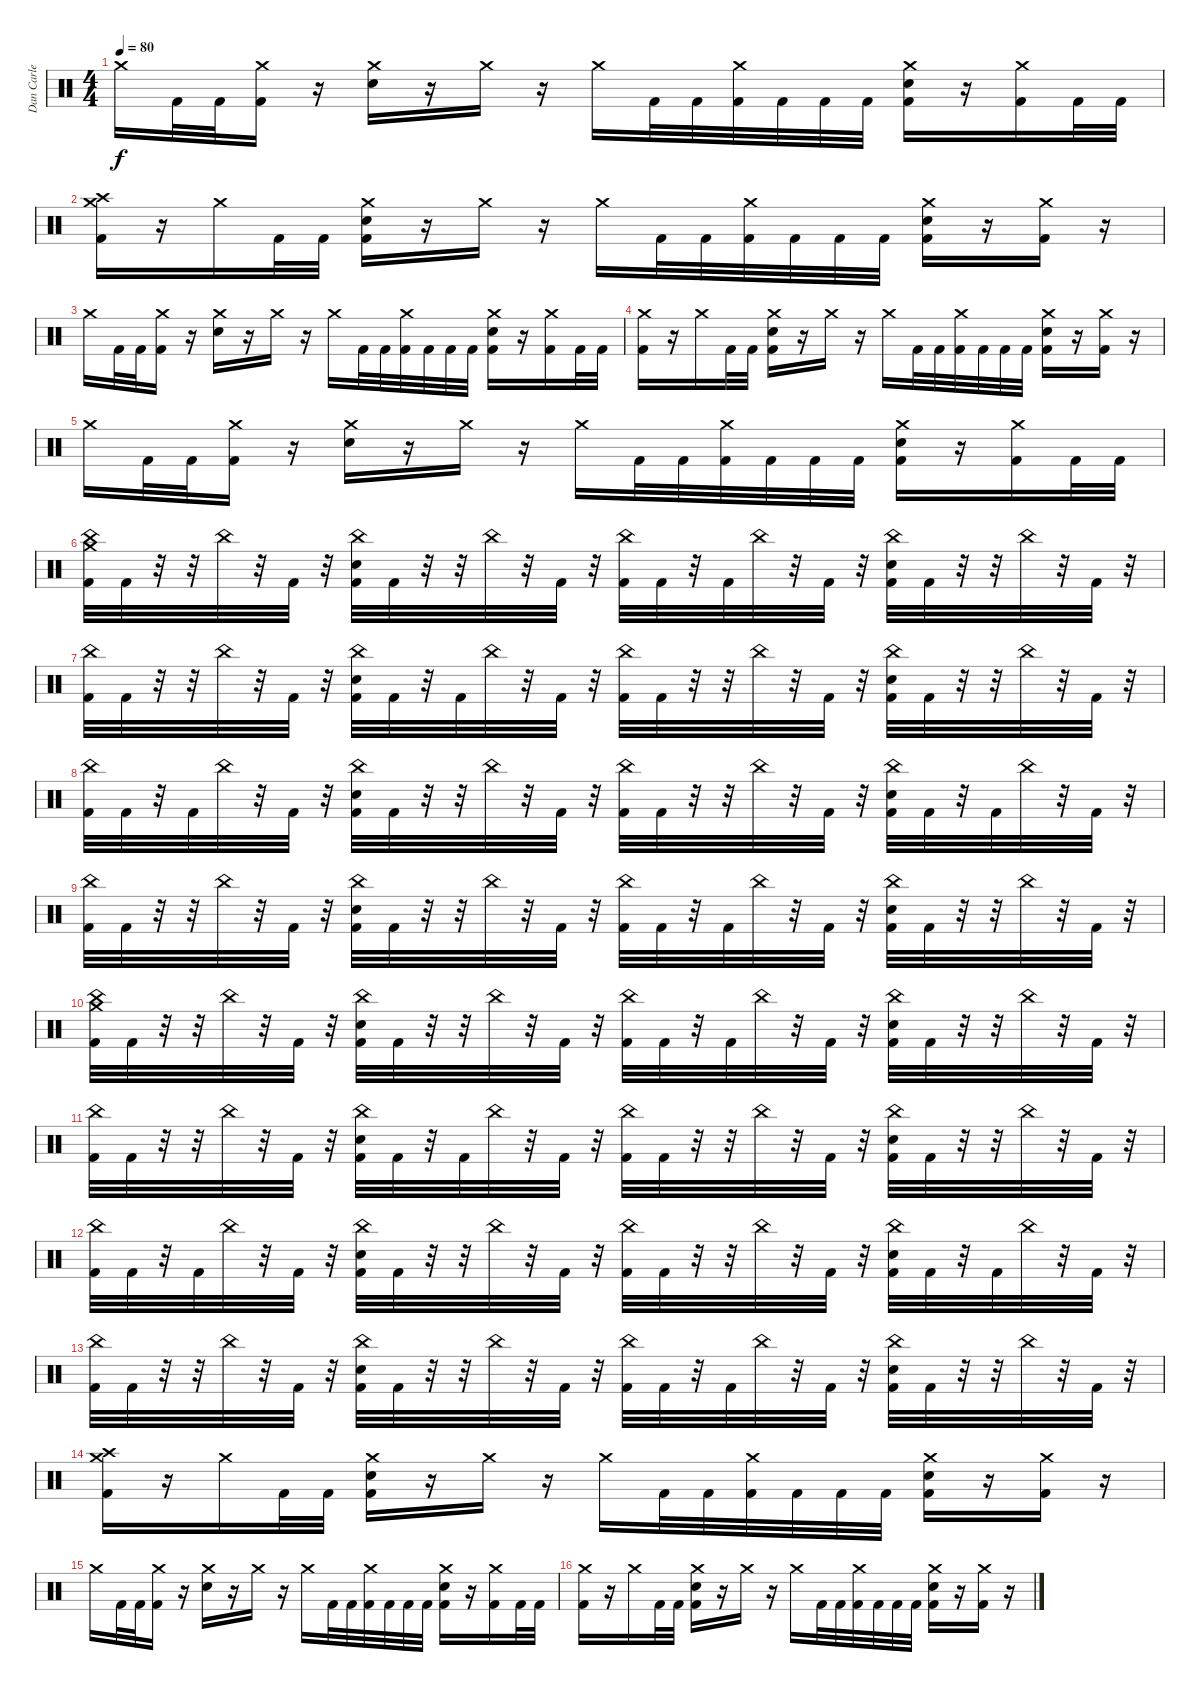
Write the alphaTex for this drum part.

\track ("Dan Carle" "Dan Carle") {instrument percussion}
\staff {score}
\articulation defaults
\ts (4 4)
\tempo 80
\clef neutral
\ks c "Crash medium (hit)".16{dy f} "Kick (hit) 2".32 "Kick (hit) 2".32
("Crash medium (hit)" "Kick (hit) 2").16 r.16 ("Crash medium (hit)" "Snare (hit) 2").16 r.16 "Crash medium (hit)".16 r.16 "Crash medium (hit)".16 "Kick (hit) 2".32 "Kick (hit) 2".32 ("Crash medium (hit)" "Kick (hit) 2").32 "Kick (hit) 2".32 "Kick (hit) 2".32 "Kick (hit) 2".32 ("Crash medium (hit)" "Snare (hit) 2" "Kick (hit) 2").16 r.16 ("Crash medium (hit)" "Kick (hit) 2").16 "Kick (hit) 2".32 "Kick (hit) 2".32 |
("Crash medium (hit)" "Crash high (hit)" "Kick (hit) 2").16 r.16 "Crash medium (hit)".16 "Kick (hit) 2".32 "Kick (hit) 2".32 ("Crash medium (hit)" "Snare (hit) 2" "Kick (hit) 2").16 r.16 "Crash medium (hit)".16 r.16 "Crash medium (hit)".16 "Kick (hit) 2".32 "Kick (hit) 2".32 ("Crash medium (hit)" "Kick (hit) 2").32 "Kick (hit) 2".32 "Kick (hit) 2".32 "Kick (hit) 2".32 ("Crash medium (hit)" "Snare (hit) 2" "Kick (hit) 2").16 r.16 ("Crash medium (hit)" "Kick (hit) 2").16 r.16 |
"Crash medium (hit)".16 "Kick (hit) 2".32 "Kick (hit) 2".32 ("Crash medium (hit)" "Kick (hit) 2").16 r.16 ("Crash medium (hit)" "Snare (hit) 2").16 r.16 "Crash medium (hit)".16 r.16 "Crash medium (hit)".16 "Kick (hit) 2".32 "Kick (hit) 2".32 ("Crash medium (hit)" "Kick (hit) 2").32 "Kick (hit) 2".32 "Kick (hit) 2".32 "Kick (hit) 2".32 ("Crash medium (hit)" "Snare (hit) 2" "Kick (hit) 2").16 r.16 ("Crash medium (hit)" "Kick (hit) 2").16 "Kick (hit) 2".32 "Kick (hit) 2".32 |
("Crash medium (hit)" "Kick (hit) 2").16 r.16 "Crash medium (hit)".16 "Kick (hit) 2".32 "Kick (hit) 2".32 ("Crash medium (hit)" "Snare (hit) 2" "Kick (hit) 2").16 r.16 "Crash medium (hit)".16 r.16 "Crash medium (hit)".16 "Kick (hit) 2".32 "Kick (hit) 2".32 ("Crash medium (hit)" "Kick (hit) 2").32 "Kick (hit) 2".32 "Kick (hit) 2".32 "Kick (hit) 2".32 ("Crash medium (hit)" "Snare (hit) 2" "Kick (hit) 2").16 r.16 ("Crash medium (hit)" "Kick (hit) 2").16 r.16 |
"Crash medium (hit)".16 "Kick (hit) 2".32 "Kick (hit) 2".32 ("Crash medium (hit)" "Kick (hit) 2").16 r.16 ("Crash medium (hit)" "Snare (hit) 2").16 r.16 "Crash medium (hit)".16 r.16 "Crash medium (hit)".16 "Kick (hit) 2".32 "Kick (hit) 2".32 ("Crash medium (hit)" "Kick (hit) 2").32 "Kick (hit) 2".32 "Kick (hit) 2".32 "Kick (hit) 2".32 ("Crash medium (hit)" "Snare (hit) 2" "Kick (hit) 2").16 r.16 ("Crash medium (hit)" "Kick (hit) 2").16 "Kick (hit) 2".32 "Kick (hit) 2".32 |
("China (hit)" "Crash medium (hit)" "Kick (hit) 2").32 "Kick (hit) 2".32 r.32 r.32 "China (hit)".32 r.32 "Kick (hit) 2".32 r.32 ("China (hit)" "Snare (hit) 2" "Kick (hit) 2").32 "Kick (hit) 2".32 r.32 r.32 "China (hit)".32 r.32 "Kick (hit) 2".32 r.32 ("China (hit)" "Kick (hit) 2").32 "Kick (hit) 2".32 r.32 "Kick (hit) 2".32 "China (hit)".32 r.32 "Kick (hit) 2".32 r.32 ("China (hit)" "Snare (hit) 2" "Kick (hit) 2").32 "Kick (hit) 2".32 r.32 r.32 "China (hit)".32 r.32 "Kick (hit) 2".32 r.32 |
("China (hit)" "Kick (hit) 2").32 "Kick (hit) 2".32 r.32 r.32 "China (hit)".32 r.32 "Kick (hit) 2".32 r.32 ("China (hit)" "Snare (hit) 2" "Kick (hit) 2").32 "Kick (hit) 2".32 r.32 "Kick (hit) 2".32 "China (hit)".32 r.32 "Kick (hit) 2".32 r.32 ("China (hit)" "Kick (hit) 2").32 "Kick (hit) 2".32 r.32 r.32 "China (hit)".32 r.32 "Kick (hit) 2".32 r.32 ("China (hit)" "Snare (hit) 2" "Kick (hit) 2").32 "Kick (hit) 2".32 r.32 r.32 "China (hit)".32 r.32 "Kick (hit) 2".32 r.32 |
("China (hit)" "Kick (hit) 2").32 "Kick (hit) 2".32 r.32 "Kick (hit) 2".32 "China (hit)".32 r.32 "Kick (hit) 2".32 r.32 ("China (hit)" "Snare (hit) 2" "Kick (hit) 2").32 "Kick (hit) 2".32 r.32 r.32 "China (hit)".32 r.32 "Kick (hit) 2".32 r.32 ("China (hit)" "Kick (hit) 2").32 "Kick (hit) 2".32 r.32 r.32 "China (hit)".32 r.32 "Kick (hit) 2".32 r.32 ("China (hit)" "Snare (hit) 2" "Kick (hit) 2").32 "Kick (hit) 2".32 r.32 "Kick (hit) 2".32 "China (hit)".32 r.32 "Kick (hit) 2".32 r.32 |
("China (hit)" "Kick (hit) 2").32 "Kick (hit) 2".32 r.32 r.32 "China (hit)".32 r.32 "Kick (hit) 2".32 r.32 ("China (hit)" "Snare (hit) 2" "Kick (hit) 2").32 "Kick (hit) 2".32 r.32 r.32 "China (hit)".32 r.32 "Kick (hit) 2".32 r.32 ("China (hit)" "Kick (hit) 2").32 "Kick (hit) 2".32 r.32 "Kick (hit) 2".32 "China (hit)".32 r.32 "Kick (hit) 2".32 r.32 ("China (hit)" "Snare (hit) 2" "Kick (hit) 2").32 "Kick (hit) 2".32 r.32 r.32 "China (hit)".32 r.32 "Kick (hit) 2".32 r.32 |
("China (hit)" "Crash medium (hit)" "Kick (hit) 2").32 "Kick (hit) 2".32 r.32 r.32 "China (hit)".32 r.32 "Kick (hit) 2".32 r.32 ("China (hit)" "Snare (hit) 2" "Kick (hit) 2").32 "Kick (hit) 2".32 r.32 r.32 "China (hit)".32 r.32 "Kick (hit) 2".32 r.32 ("China (hit)" "Kick (hit) 2").32 "Kick (hit) 2".32 r.32 "Kick (hit) 2".32 "China (hit)".32 r.32 "Kick (hit) 2".32 r.32 ("China (hit)" "Snare (hit) 2" "Kick (hit) 2").32 "Kick (hit) 2".32 r.32 r.32 "China (hit)".32 r.32 "Kick (hit) 2".32 r.32 |
("China (hit)" "Kick (hit) 2").32 "Kick (hit) 2".32 r.32 r.32 "China (hit)".32 r.32 "Kick (hit) 2".32 r.32 ("China (hit)" "Snare (hit) 2" "Kick (hit) 2").32 "Kick (hit) 2".32 r.32 "Kick (hit) 2".32 "China (hit)".32 r.32 "Kick (hit) 2".32 r.32 ("China (hit)" "Kick (hit) 2").32 "Kick (hit) 2".32 r.32 r.32 "China (hit)".32 r.32 "Kick (hit) 2".32 r.32 ("China (hit)" "Snare (hit) 2" "Kick (hit) 2").32 "Kick (hit) 2".32 r.32 r.32 "China (hit)".32 r.32 "Kick (hit) 2".32 r.32 |
("China (hit)" "Kick (hit) 2").32 "Kick (hit) 2".32 r.32 "Kick (hit) 2".32 "China (hit)".32 r.32 "Kick (hit) 2".32 r.32 ("China (hit)" "Snare (hit) 2" "Kick (hit) 2").32 "Kick (hit) 2".32 r.32 r.32 "China (hit)".32 r.32 "Kick (hit) 2".32 r.32 ("China (hit)" "Kick (hit) 2").32 "Kick (hit) 2".32 r.32 r.32 "China (hit)".32 r.32 "Kick (hit) 2".32 r.32 ("China (hit)" "Snare (hit) 2" "Kick (hit) 2").32 "Kick (hit) 2".32 r.32 "Kick (hit) 2".32 "China (hit)".32 r.32 "Kick (hit) 2".32 r.32 |
("China (hit)" "Kick (hit) 2").32 "Kick (hit) 2".32 r.32 r.32 "China (hit)".32 r.32 "Kick (hit) 2".32 r.32 ("China (hit)" "Snare (hit) 2" "Kick (hit) 2").32 "Kick (hit) 2".32 r.32 r.32 "China (hit)".32 r.32 "Kick (hit) 2".32 r.32 ("China (hit)" "Kick (hit) 2").32 "Kick (hit) 2".32 r.32 "Kick (hit) 2".32 "China (hit)".32 r.32 "Kick (hit) 2".32 r.32 ("China (hit)" "Snare (hit) 2" "Kick (hit) 2").32 "Kick (hit) 2".32 r.32 r.32 "China (hit)".32 r.32 "Kick (hit) 2".32 r.32 |
("Crash medium (hit)" "Crash high (hit)" "Kick (hit) 2").16 r.16 "Crash medium (hit)".16 "Kick (hit) 2".32 "Kick (hit) 2".32 ("Crash medium (hit)" "Snare (hit) 2" "Kick (hit) 2").16 r.16 "Crash medium (hit)".16 r.16 "Crash medium (hit)".16 "Kick (hit) 2".32 "Kick (hit) 2".32 ("Crash medium (hit)" "Kick (hit) 2").32 "Kick (hit) 2".32 "Kick (hit) 2".32 "Kick (hit) 2".32 ("Crash medium (hit)" "Snare (hit) 2" "Kick (hit) 2").16 r.16 ("Crash medium (hit)" "Kick (hit) 2").16 r.16 |
"Crash medium (hit)".16 "Kick (hit) 2".32 "Kick (hit) 2".32 ("Crash medium (hit)" "Kick (hit) 2").16 r.16 ("Crash medium (hit)" "Snare (hit) 2").16 r.16 "Crash medium (hit)".16 r.16 "Crash medium (hit)".16 "Kick (hit) 2".32 "Kick (hit) 2".32 ("Crash medium (hit)" "Kick (hit) 2").32 "Kick (hit) 2".32 "Kick (hit) 2".32 "Kick (hit) 2".32 ("Crash medium (hit)" "Snare (hit) 2" "Kick (hit) 2").16 r.16 ("Crash medium (hit)" "Kick (hit) 2").16 "Kick (hit) 2".32 "Kick (hit) 2".32 |
("Crash medium (hit)" "Kick (hit) 2").16 r.16 "Crash medium (hit)".16 "Kick (hit) 2".32 "Kick (hit) 2".32 ("Crash medium (hit)" "Snare (hit) 2" "Kick (hit) 2").16 r.16 "Crash medium (hit)".16 r.16 "Crash medium (hit)".16 "Kick (hit) 2".32 "Kick (hit) 2".32 ("Crash medium (hit)" "Kick (hit) 2").32 "Kick (hit) 2".32 "Kick (hit) 2".32 "Kick (hit) 2".32 ("Crash medium (hit)" "Snare (hit) 2" "Kick (hit) 2").16 r.16 ("Crash medium (hit)" "Kick (hit) 2").16 r.16
